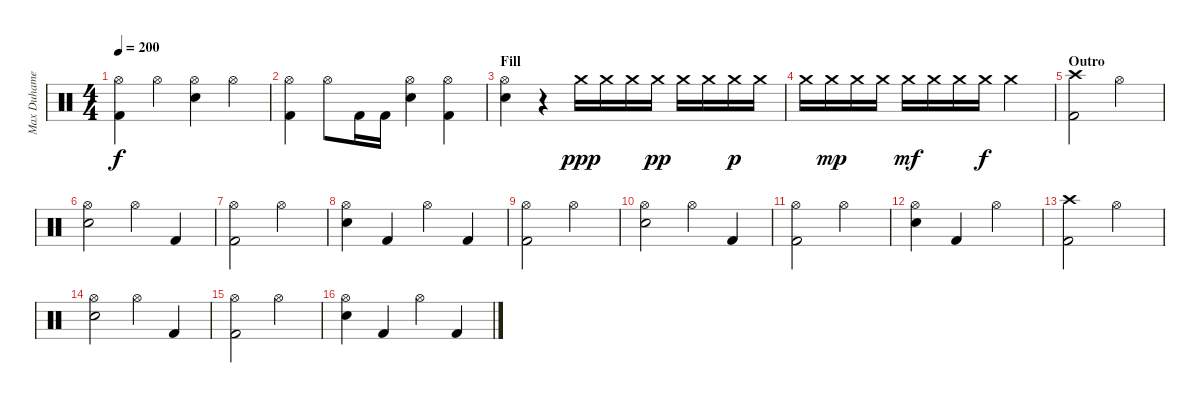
\track ("Max Duhamel" "Max Duhame") {instrument percussion}
\staff {score}
\articulation defaults
\ts (4 4)
\tempo 200
\clef neutral
\ks c
("Hi-Hat (open)" "Kick (hit) 2").4{dy f} "Hi-Hat (open)".4 ("Hi-Hat (open)" "Electric Snare (hit)").4 "Hi-Hat (open)".4 |
("Hi-Hat (open)" "Kick (hit) 2").4 "Hi-Hat (open)".8 "Kick (hit) 2".16 "Kick (hit) 2".16 ("Hi-Hat (open)" "Electric Snare (hit)").4 ("Hi-Hat (open)" "Kick (hit) 2").4 |
\section ("" "Fill")
("Hi-Hat (open)" "Electric Snare (hit)").4 r.4 "Crash medium (hit)".16{dy ppp} "Crash medium (hit)".16 "Crash medium (hit)".16 "Crash medium (hit)".16{dy pp} "Crash medium (hit)".16 "Crash medium (hit)".16 "Crash medium (hit)".16{dy p} "Crash medium (hit)".16 |
"Crash medium (hit)".16 "Crash medium (hit)".16{dy mp} "Crash medium (hit)".16 "Crash medium (hit)".16 "Crash medium (hit)".16{dy mf} "Crash medium (hit)".16 "Crash medium (hit)".16 "Crash medium (hit)".16{dy f} "Crash medium (hit)".2 |
\section ("" "Outro")
("Crash high (hit)" "Kick (hit) 2").2 "Hi-Hat (open)".2 |
("Hi-Hat (open)" "Electric Snare (hit)").2 "Hi-Hat (open)".4 "Kick (hit) 2".4 |
("Hi-Hat (open)" "Kick (hit) 2").2 "Hi-Hat (open)".2 |
("Hi-Hat (open)" "Electric Snare (hit)").4 "Kick (hit) 2".4 "Hi-Hat (open)".4 "Kick (hit) 2".4 |
("Hi-Hat (open)" "Kick (hit) 2").2 "Hi-Hat (open)".2 |
("Hi-Hat (open)" "Electric Snare (hit)").2 "Hi-Hat (open)".4 "Kick (hit) 2".4 |
("Hi-Hat (open)" "Kick (hit) 2").2 "Hi-Hat (open)".2 |
("Hi-Hat (open)" "Electric Snare (hit)").4 "Kick (hit) 2".4 "Hi-Hat (open)".2 |
\section ("" "")
("Crash high (hit)" "Kick (hit) 2").2 "Hi-Hat (open)".2 |
("Hi-Hat (open)" "Electric Snare (hit)").2 "Hi-Hat (open)".4 "Kick (hit) 2".4 |
("Hi-Hat (open)" "Kick (hit) 2").2 "Hi-Hat (open)".2 |
("Hi-Hat (open)" "Electric Snare (hit)").4 "Kick (hit) 2".4 "Hi-Hat (open)".4 "Kick (hit) 2".4
